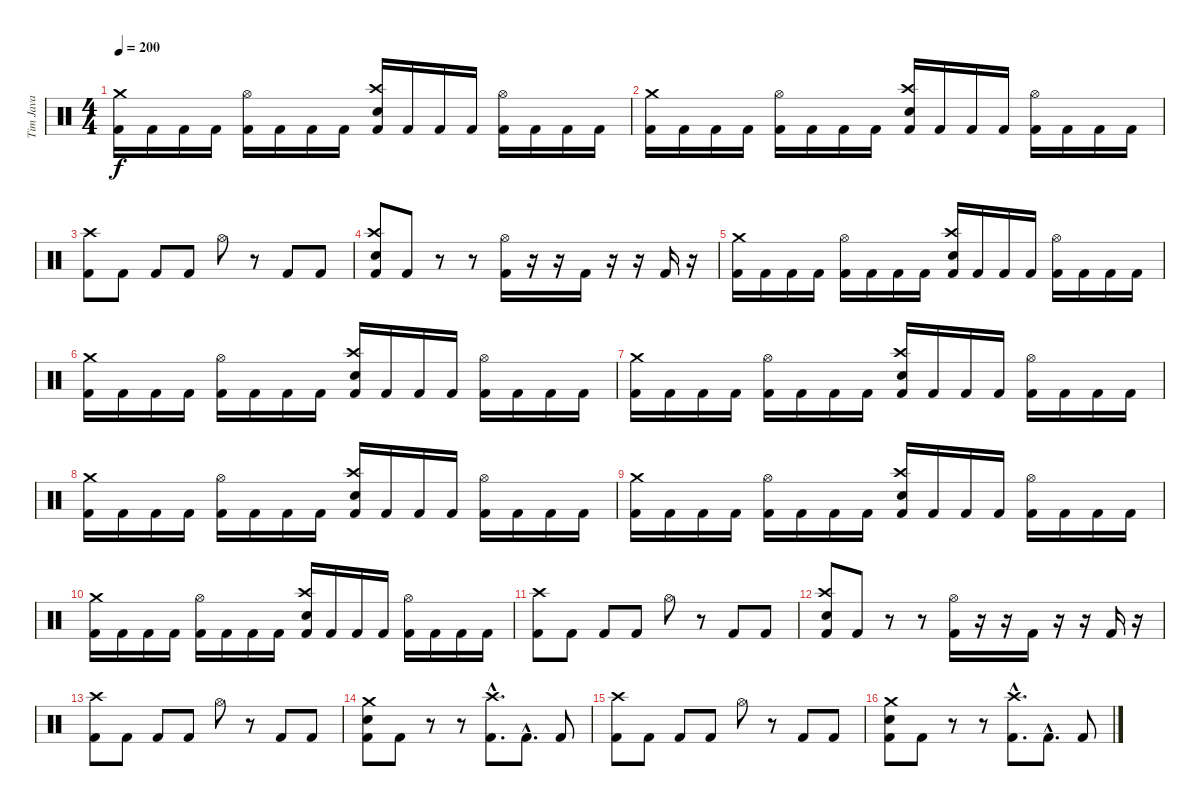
\track ("Tim Java" "Tim Java") {instrument percussion}
\staff {score}
\articulation defaults
\ts (4 4)
\tempo 200
\clef neutral
\ks c
("Crash medium (hit)" "Kick (hit) 2").16{dy f} "Kick (hit) 2".16 "Kick (hit) 2".16 "Kick (hit) 2".16 ("Hi-Hat (open)" "Kick (hit) 2").16 "Kick (hit) 2".16 "Kick (hit) 2".16 "Kick (hit) 2".16 ("Crash high (hit)" "Electric Snare (hit)" "Kick (hit) 2").16 "Kick (hit) 2".16 "Kick (hit) 2".16 "Kick (hit) 2".16 ("Hi-Hat (open)" "Kick (hit) 2").16 "Kick (hit) 2".16 "Kick (hit) 2".16 "Kick (hit) 2".16 |
("Crash medium (hit)" "Kick (hit) 2").16 "Kick (hit) 2".16 "Kick (hit) 2".16 "Kick (hit) 2".16 ("Hi-Hat (open)" "Kick (hit) 2").16 "Kick (hit) 2".16 "Kick (hit) 2".16 "Kick (hit) 2".16 ("Crash high (hit)" "Electric Snare (hit)" "Kick (hit) 2").16 "Kick (hit) 2".16 "Kick (hit) 2".16 "Kick (hit) 2".16 ("Hi-Hat (open)" "Kick (hit) 2").16 "Kick (hit) 2".16 "Kick (hit) 2".16 "Kick (hit) 2".16 |
("Crash high (hit)" "Kick (hit) 2").8 "Kick (hit) 2".8 "Kick (hit) 2".8 "Kick (hit) 2".8 "Hi-Hat (open)".8 r.8 "Kick (hit) 2".8 "Kick (hit) 2".8 |
("Crash high (hit)" "Electric Snare (hit)" "Kick (hit) 2").8 "Kick (hit) 2".8 r.8 r.8 ("Hi-Hat (open)" "Kick (hit) 2").16 r.16 r.16 "Kick (hit) 2".16 r.16 r.16 "Kick (hit) 2".16 r.16 |
("Crash medium (hit)" "Kick (hit) 2").16 "Kick (hit) 2".16 "Kick (hit) 2".16 "Kick (hit) 2".16 ("Hi-Hat (open)" "Kick (hit) 2").16 "Kick (hit) 2".16 "Kick (hit) 2".16 "Kick (hit) 2".16 ("Crash high (hit)" "Electric Snare (hit)" "Kick (hit) 2").16 "Kick (hit) 2".16 "Kick (hit) 2".16 "Kick (hit) 2".16 ("Hi-Hat (open)" "Kick (hit) 2").16 "Kick (hit) 2".16 "Kick (hit) 2".16 "Kick (hit) 2".16 |
("Crash medium (hit)" "Kick (hit) 2").16 "Kick (hit) 2".16 "Kick (hit) 2".16 "Kick (hit) 2".16 ("Hi-Hat (open)" "Kick (hit) 2").16 "Kick (hit) 2".16 "Kick (hit) 2".16 "Kick (hit) 2".16 ("Crash high (hit)" "Electric Snare (hit)" "Kick (hit) 2").16 "Kick (hit) 2".16 "Kick (hit) 2".16 "Kick (hit) 2".16 ("Hi-Hat (open)" "Kick (hit) 2").16 "Kick (hit) 2".16 "Kick (hit) 2".16 "Kick (hit) 2".16 |
("Crash medium (hit)" "Kick (hit) 2").16 "Kick (hit) 2".16 "Kick (hit) 2".16 "Kick (hit) 2".16 ("Hi-Hat (open)" "Kick (hit) 2").16 "Kick (hit) 2".16 "Kick (hit) 2".16 "Kick (hit) 2".16 ("Crash high (hit)" "Electric Snare (hit)" "Kick (hit) 2").16 "Kick (hit) 2".16 "Kick (hit) 2".16 "Kick (hit) 2".16 ("Hi-Hat (open)" "Kick (hit) 2").16 "Kick (hit) 2".16 "Kick (hit) 2".16 "Kick (hit) 2".16 |
("Crash medium (hit)" "Kick (hit) 2").16 "Kick (hit) 2".16 "Kick (hit) 2".16 "Kick (hit) 2".16 ("Hi-Hat (open)" "Kick (hit) 2").16 "Kick (hit) 2".16 "Kick (hit) 2".16 "Kick (hit) 2".16 ("Crash high (hit)" "Electric Snare (hit)" "Kick (hit) 2").16 "Kick (hit) 2".16 "Kick (hit) 2".16 "Kick (hit) 2".16 ("Hi-Hat (open)" "Kick (hit) 2").16 "Kick (hit) 2".16 "Kick (hit) 2".16 "Kick (hit) 2".16 |
("Crash medium (hit)" "Kick (hit) 2").16 "Kick (hit) 2".16 "Kick (hit) 2".16 "Kick (hit) 2".16 ("Hi-Hat (open)" "Kick (hit) 2").16 "Kick (hit) 2".16 "Kick (hit) 2".16 "Kick (hit) 2".16 ("Crash high (hit)" "Electric Snare (hit)" "Kick (hit) 2").16 "Kick (hit) 2".16 "Kick (hit) 2".16 "Kick (hit) 2".16 ("Hi-Hat (open)" "Kick (hit) 2").16 "Kick (hit) 2".16 "Kick (hit) 2".16 "Kick (hit) 2".16 |
("Crash medium (hit)" "Kick (hit) 2").16 "Kick (hit) 2".16 "Kick (hit) 2".16 "Kick (hit) 2".16 ("Hi-Hat (open)" "Kick (hit) 2").16 "Kick (hit) 2".16 "Kick (hit) 2".16 "Kick (hit) 2".16 ("Crash high (hit)" "Electric Snare (hit)" "Kick (hit) 2").16 "Kick (hit) 2".16 "Kick (hit) 2".16 "Kick (hit) 2".16 ("Hi-Hat (open)" "Kick (hit) 2").16 "Kick (hit) 2".16 "Kick (hit) 2".16 "Kick (hit) 2".16 |
("Crash high (hit)" "Kick (hit) 2").8 "Kick (hit) 2".8 "Kick (hit) 2".8 "Kick (hit) 2".8 "Hi-Hat (open)".8 r.8 "Kick (hit) 2".8 "Kick (hit) 2".8 |
("Crash high (hit)" "Electric Snare (hit)" "Kick (hit) 2").8 "Kick (hit) 2".8 r.8 r.8 ("Hi-Hat (open)" "Kick (hit) 2").16 r.16 r.16 "Kick (hit) 2".16 r.16 r.16 "Kick (hit) 2".16 r.16 |
("Crash high (hit)" "Kick (hit) 2").8 "Kick (hit) 2".8 "Kick (hit) 2".8 "Kick (hit) 2".8 "Hi-Hat (open)".8 r.8 "Kick (hit) 2".8 "Kick (hit) 2".8 |
("Crash medium (hit)" "Electric Snare (hit)" "Kick (hit) 2").8 "Kick (hit) 2".8 r.8 r.8 ("Crash high (hit)"{hac} "Kick (hit) 2"{hac}).8{d} "Kick (hit) 2"{hac}.8{d} "Kick (hit) 2".8 |
("Crash high (hit)" "Kick (hit) 2").8 "Kick (hit) 2".8 "Kick (hit) 2".8 "Kick (hit) 2".8 "Hi-Hat (open)".8 r.8 "Kick (hit) 2".8 "Kick (hit) 2".8 |
("Crash medium (hit)" "Electric Snare (hit)" "Kick (hit) 2").8 "Kick (hit) 2".8 r.8 r.8 ("Crash high (hit)"{hac} "Kick (hit) 2"{hac}).8{d} "Kick (hit) 2"{hac}.8{d} "Kick (hit) 2".8
